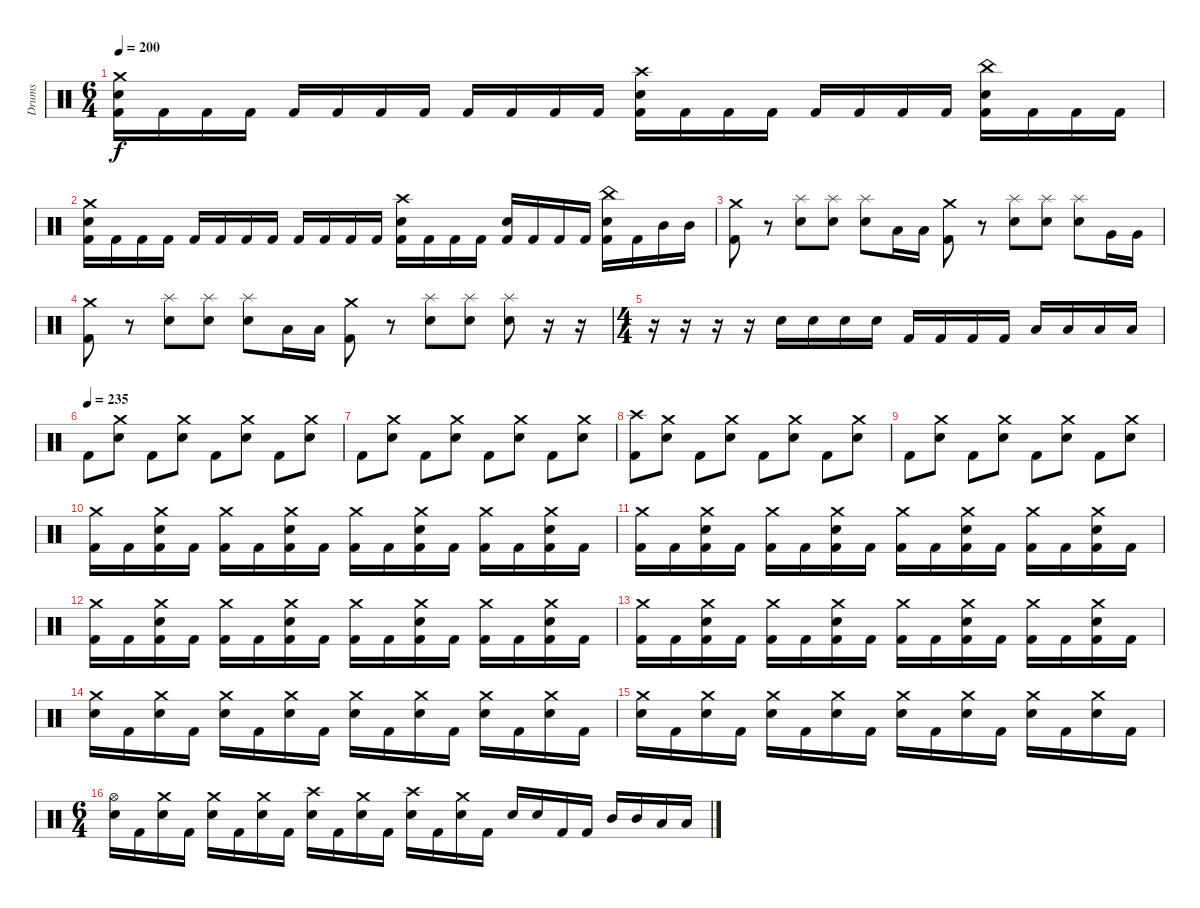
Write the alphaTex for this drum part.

\track ("Drums" "Drums") {instrument percussion}
\staff {score}
\articulation defaults
\ts (6 4)
\tempo 200
\clef neutral
\ks c
("Crash medium (hit)" "Electric Snare (hit)" "Kick (hit) 2").16{dy f} "Kick (hit) 2".16 "Kick (hit) 2".16 "Kick (hit) 2".16 "Kick (hit) 2".16 "Kick (hit) 2".16 "Kick (hit) 2".16 "Kick (hit) 2".16 "Kick (hit) 2".16 "Kick (hit) 2".16 "Kick (hit) 2".16 "Kick (hit) 2".16 ("Crash high (hit)" "Electric Snare (hit)" "Kick (hit) 2").16 "Kick (hit) 2".16 "Kick (hit) 2".16 "Kick (hit) 2".16 "Kick (hit) 2".16 "Kick (hit) 2".16 "Kick (hit) 2".16 "Kick (hit) 2".16 ("China (hit)" "Electric Snare (hit)" "Kick (hit) 2").16 "Kick (hit) 2".16 "Kick (hit) 2".16 "Kick (hit) 2".16 |
("Crash medium (hit)" "Electric Snare (hit)" "Kick (hit) 2").16 "Kick (hit) 2".16 "Kick (hit) 2".16 "Kick (hit) 2".16 "Kick (hit) 2".16 "Kick (hit) 2".16 "Kick (hit) 2".16 "Kick (hit) 2".16 "Kick (hit) 2".16 "Kick (hit) 2".16 "Kick (hit) 2".16 "Kick (hit) 2".16 ("Crash high (hit)" "Electric Snare (hit)" "Kick (hit) 2").16 "Kick (hit) 2".16 "Kick (hit) 2".16 "Kick (hit) 2".16 ("Electric Snare (hit)" "Kick (hit) 2").16 "Kick (hit) 2".16 "Kick (hit) 2".16 "Kick (hit) 2".16 ("China (hit)" "Electric Snare (hit)" "Kick (hit) 2").16 "Kick (hit) 2".16 "Mid Tom (hit)".16 "Mid Tom (hit)".16 |
("Crash medium (hit)" "Kick (hit) 2").8 r.8 ("Splash (hit)" "Electric Snare (hit)").8 ("Splash (hit)" "Electric Snare (hit)").8 ("Splash (hit)" "Electric Snare (hit)").8 "Low Tom (hit)".16 "Low Tom (hit)".16 ("Crash medium (hit)" "Kick (hit) 2").8 r.8 ("Splash (hit)" "Electric Snare (hit)").8 ("Splash (hit)" "Electric Snare (hit)").8 ("Splash (hit)" "Electric Snare (hit)").8 "Very Low Tom (hit)".16 "Very Low Tom (hit)".16 |
("Crash medium (hit)" "Kick (hit) 2").8 r.8 ("Splash (hit)" "Electric Snare (hit)").8 ("Splash (hit)" "Electric Snare (hit)").8 ("Splash (hit)" "Electric Snare (hit)").8 "Low Floor Tom (hit)".16 "Low Floor Tom (hit)".16 ("Crash medium (hit)" "Kick (hit) 2").8 r.8 ("Splash (hit)" "Electric Snare (hit)").8 ("Splash (hit)" "Electric Snare (hit)").8 ("Splash (hit)" "Electric Snare (hit)").8 r.16 r.16 |
\ts (4 4)
r.16 r.16 r.16 r.16 "Electric Snare (hit)".16 "Electric Snare (hit)".16 "Electric Snare (hit)".16 "Electric Snare (hit)".16 "Kick (hit) 2".16 "Kick (hit) 2".16 "Kick (hit) 2".16 "Kick (hit) 2".16 "Low Tom (hit)".16 "Low Tom (hit)".16 "Low Tom (hit)".16 "Low Tom (hit)".16 |
\tempo (235)
"Kick (hit) 2".8 ("Crash medium (hit)" "Electric Snare (hit)").8 "Kick (hit) 2".8 ("Crash medium (hit)" "Electric Snare (hit)").8 "Kick (hit) 2".8 ("Crash medium (hit)" "Electric Snare (hit)").8 "Kick (hit) 2".8 ("Crash medium (hit)" "Electric Snare (hit)").8 |
"Kick (hit) 2".8 ("Crash medium (hit)" "Electric Snare (hit)").8 "Kick (hit) 2".8 ("Crash medium (hit)" "Electric Snare (hit)").8 "Kick (hit) 2".8 ("Crash medium (hit)" "Electric Snare (hit)").8 "Kick (hit) 2".8 ("Crash medium (hit)" "Electric Snare (hit)").8 |
("Crash high (hit)" "Kick (hit) 2").8 ("Crash medium (hit)" "Electric Snare (hit)").8 "Kick (hit) 2".8 ("Crash medium (hit)" "Electric Snare (hit)").8 "Kick (hit) 2".8 ("Crash medium (hit)" "Electric Snare (hit)").8 "Kick (hit) 2".8 ("Crash medium (hit)" "Electric Snare (hit)").8 |
"Kick (hit) 2".8 ("Crash medium (hit)" "Electric Snare (hit)").8 "Kick (hit) 2".8 ("Crash medium (hit)" "Electric Snare (hit)").8 "Kick (hit) 2".8 ("Crash medium (hit)" "Electric Snare (hit)").8 "Kick (hit) 2".8 ("Crash medium (hit)" "Electric Snare (hit)").8 |
("Crash medium (hit)" "Kick (hit) 2").16 "Kick (hit) 2".16 ("Crash medium (hit)" "Electric Snare (hit)" "Kick (hit) 2").16 "Kick (hit) 2".16 ("Crash medium (hit)" "Kick (hit) 2").16 "Kick (hit) 2".16 ("Crash medium (hit)" "Electric Snare (hit)" "Kick (hit) 2").16 "Kick (hit) 2".16 ("Crash medium (hit)" "Kick (hit) 2").16 "Kick (hit) 2".16 ("Crash medium (hit)" "Electric Snare (hit)" "Kick (hit) 2").16 "Kick (hit) 2".16 ("Crash medium (hit)" "Kick (hit) 2").16 "Kick (hit) 2".16 ("Crash medium (hit)" "Electric Snare (hit)" "Kick (hit) 2").16 "Kick (hit) 2".16 |
("Crash medium (hit)" "Kick (hit) 2").16 "Kick (hit) 2".16 ("Crash medium (hit)" "Electric Snare (hit)" "Kick (hit) 2").16 "Kick (hit) 2".16 ("Crash medium (hit)" "Kick (hit) 2").16 "Kick (hit) 2".16 ("Crash medium (hit)" "Electric Snare (hit)" "Kick (hit) 2").16 "Kick (hit) 2".16 ("Crash medium (hit)" "Kick (hit) 2").16 "Kick (hit) 2".16 ("Crash medium (hit)" "Electric Snare (hit)" "Kick (hit) 2").16 "Kick (hit) 2".16 ("Crash medium (hit)" "Kick (hit) 2").16 "Kick (hit) 2".16 ("Crash medium (hit)" "Electric Snare (hit)" "Kick (hit) 2").16 "Kick (hit) 2".16 |
("Crash medium (hit)" "Kick (hit) 2").16 "Kick (hit) 2".16 ("Crash medium (hit)" "Electric Snare (hit)" "Kick (hit) 2").16 "Kick (hit) 2".16 ("Crash medium (hit)" "Kick (hit) 2").16 "Kick (hit) 2".16 ("Crash medium (hit)" "Electric Snare (hit)" "Kick (hit) 2").16 "Kick (hit) 2".16 ("Crash medium (hit)" "Kick (hit) 2").16 "Kick (hit) 2".16 ("Crash medium (hit)" "Electric Snare (hit)" "Kick (hit) 2").16 "Kick (hit) 2".16 ("Crash medium (hit)" "Kick (hit) 2").16 "Kick (hit) 2".16 ("Crash medium (hit)" "Electric Snare (hit)" "Kick (hit) 2").16 "Kick (hit) 2".16 |
("Crash medium (hit)" "Kick (hit) 2").16 "Kick (hit) 2".16 ("Crash medium (hit)" "Electric Snare (hit)" "Kick (hit) 2").16 "Kick (hit) 2".16 ("Crash medium (hit)" "Kick (hit) 2").16 "Kick (hit) 2".16 ("Crash medium (hit)" "Electric Snare (hit)" "Kick (hit) 2").16 "Kick (hit) 2".16 ("Crash medium (hit)" "Kick (hit) 2").16 "Kick (hit) 2".16 ("Crash medium (hit)" "Electric Snare (hit)" "Kick (hit) 2").16 "Kick (hit) 2".16 ("Crash medium (hit)" "Kick (hit) 2").16 "Kick (hit) 2".16 ("Crash medium (hit)" "Electric Snare (hit)" "Kick (hit) 2").16 "Kick (hit) 2".16 |
("Crash medium (hit)" "Electric Snare (hit)").16 "Kick (hit) 2".16 ("Crash medium (hit)" "Electric Snare (hit)").16 "Kick (hit) 2".16 ("Crash medium (hit)" "Electric Snare (hit)").16 "Kick (hit) 2".16 ("Crash medium (hit)" "Electric Snare (hit)").16 "Kick (hit) 2".16 ("Crash medium (hit)" "Electric Snare (hit)").16 "Kick (hit) 2".16 ("Crash medium (hit)" "Electric Snare (hit)").16 "Kick (hit) 2".16 ("Crash medium (hit)" "Electric Snare (hit)").16 "Kick (hit) 2".16 ("Crash medium (hit)" "Electric Snare (hit)").16 "Kick (hit) 2".16 |
("Crash medium (hit)" "Electric Snare (hit)").16 "Kick (hit) 2".16 ("Crash medium (hit)" "Electric Snare (hit)").16 "Kick (hit) 2".16 ("Crash medium (hit)" "Electric Snare (hit)").16 "Kick (hit) 2".16 ("Crash medium (hit)" "Electric Snare (hit)").16 "Kick (hit) 2".16 ("Crash medium (hit)" "Electric Snare (hit)").16 "Kick (hit) 2".16 ("Crash medium (hit)" "Electric Snare (hit)").16 "Kick (hit) 2".16 ("Crash medium (hit)" "Electric Snare (hit)").16 "Kick (hit) 2".16 ("Crash medium (hit)" "Electric Snare (hit)").16 "Kick (hit) 2".16 |
\ts (6 4)
("Hi-Hat (open)" "Electric Snare (hit)").16 "Kick (hit) 2".16 ("Crash medium (hit)" "Electric Snare (hit)").16 "Kick (hit) 2".16 ("Crash medium (hit)" "Electric Snare (hit)").16 "Kick (hit) 2".16 ("Crash medium (hit)" "Electric Snare (hit)").16 "Kick (hit) 2".16 ("Crash high (hit)" "Electric Snare (hit)").16 "Kick (hit) 2".16 ("Crash medium (hit)" "Electric Snare (hit)").16 "Kick (hit) 2".16 ("Crash high (hit)" "Electric Snare (hit)").16 "Kick (hit) 2".16 ("Crash medium (hit)" "Electric Snare (hit)").16 "Kick (hit) 2".16 "Electric Snare (hit)".16 "Electric Snare (hit)".16 "Kick (hit) 2".16 "Kick (hit) 2".16 "Mid Tom (hit)".16 "Mid Tom (hit)".16 "Low Tom (hit)".16 "Low Tom (hit)".16
